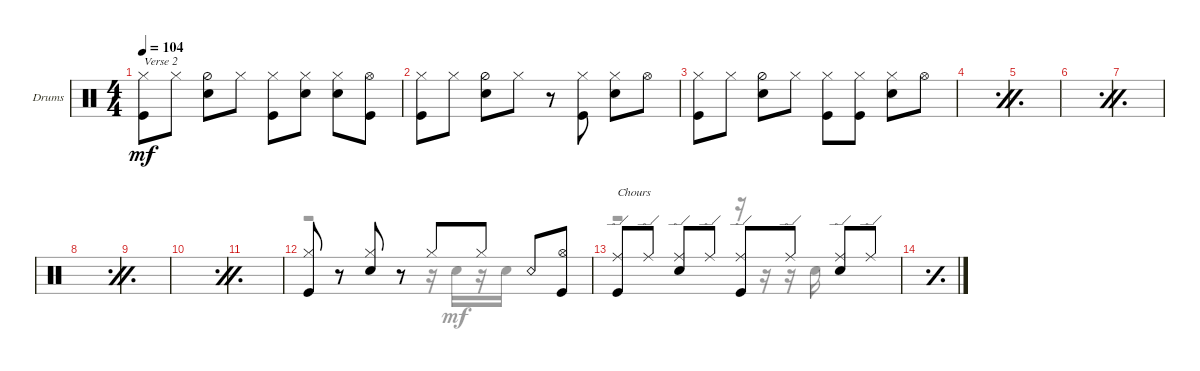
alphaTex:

\defaultSystemsLayout 4
\bracketExtendMode groupsimilarinstruments
\firstSystemTrackNameOrientation horizontal
\otherSystemsTrackNameOrientation horizontal
\track ("Алена" "Drums") {instrument percussion}
\staff {score}
\articulation defaults
\voice
\ts (4 4)
\tempo 104
\clef neutral
\ks c
("Hi-Hat (closed)" "Kick (hit)").8{txt "Verse 2" dy mf} "Hi-Hat (closed)".8 ("Hi-Hat (half)" "Snare (hit) 2").8 "Hi-Hat (closed)".8 ("Hi-Hat (closed)" "Kick (hit)").8 ("Hi-Hat (closed)" "Snare (hit) 2").8 ("Hi-Hat (closed)" "Snare (hit) 2").8 ("Hi-Hat (open)" "Kick (hit)").8 |
("Hi-Hat (closed)" "Kick (hit)").8 "Hi-Hat (closed)".8 ("Hi-Hat (half)" "Snare (hit) 2").8 "Hi-Hat (closed)".8 r.8 ("Hi-Hat (closed)" "Kick (hit)").8 ("Hi-Hat (closed)" "Snare (hit) 2").8 "Hi-Hat (open)".8 |
("Hi-Hat (closed)" "Kick (hit)").8 "Hi-Hat (closed)".8 ("Hi-Hat (half)" "Snare (hit) 2").8 "Hi-Hat (closed)".8 ("Hi-Hat (closed)" "Kick (hit)").8 ("Hi-Hat (closed)" "Kick (hit)").8 ("Hi-Hat (closed)" "Snare (hit) 2").8 "Hi-Hat (open)".8 |
\simile firstofdouble
|
\simile secondofdouble
|
\simile firstofdouble
|
\simile secondofdouble
|
\simile firstofdouble
|
\simile secondofdouble
|
\simile firstofdouble
|
\simile secondofdouble
|
\simile none
("Hi-Hat (closed)" "Kick (hit)").8 r.8 ("Snare (hit) 2" "Hi-Hat (closed)").8 r.8 "Hi-Hat (closed)".8 "Hi-Hat (closed)".8 "Snare (rim shot)".8 ("Hi-Hat (open)" "Kick (hit)").8 |
("Kick (hit)" "Ride (edge)").8{txt "Chours"} "Ride (edge)".8 ("Snare (hit) 2" "Ride (edge)").8 "Ride (edge)".8 ("Kick (hit)" "Ride (edge)").8 "Ride (edge)".8 ("Snare (hit) 2" "Ride (edge)").8 "Ride (edge)".8 |
\simile simple
|
|
\voice
\clef neutral
\ottava regular
\simile none
\ks c
|
|
|
\simile firstofdouble
|
\simile secondofdouble
|
\simile firstofdouble
|
\simile secondofdouble
|
\simile firstofdouble
|
\simile secondofdouble
|
\simile firstofdouble
|
\simile secondofdouble
|
\simile none
r.2 r.16 "Snare (hit) 2".16 r.16 "Snare (hit) 2".16 |
r.2 r.16 r.16 r.16 "Snare (hit) 2".16 |
\simile simple
|
|
